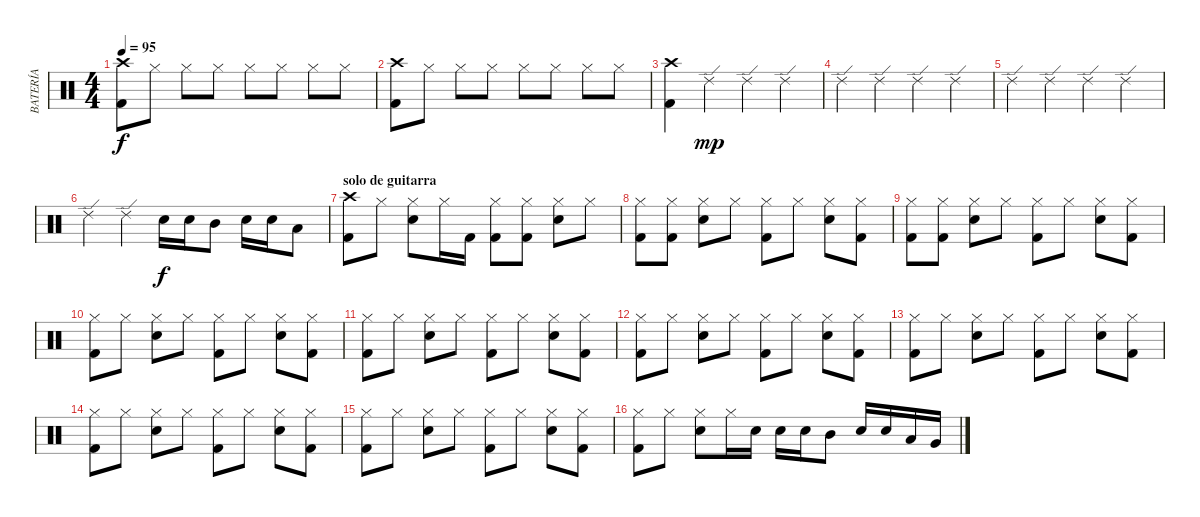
\track ("BATERÍA" "BATERÍA") {instrument percussion}
\staff {score}
\articulation defaults
\ts (4 4)
\tempo 95
\clef neutral
\ks c
("Crash high (hit)" "Kick (hit) 2").8{dy f} "Hi-Hat (closed)".8 "Hi-Hat (closed)".8 "Hi-Hat (closed)".8 "Hi-Hat (closed)".8 "Hi-Hat (closed)".8 "Hi-Hat (closed)".8 "Hi-Hat (closed)".8 |
("Crash high (hit)" "Kick (hit) 2").8 "Hi-Hat (closed)".8 "Hi-Hat (closed)".8 "Hi-Hat (closed)".8 "Hi-Hat (closed)".8 "Hi-Hat (closed)".8 "Hi-Hat (closed)".8 "Hi-Hat (closed)".8 |
("Crash high (hit)" "Kick (hit) 2").4 "Ride (edge) 2".4{dy mp} "Ride (edge) 2".4 "Ride (edge) 2".4 |
"Ride (edge) 2".4 "Ride (edge) 2".4 "Ride (edge) 2".4 "Ride (edge) 2".4 |
"Ride (edge) 2".4 "Ride (edge) 2".4 "Ride (edge) 2".4 "Ride (edge) 2".4 |
"Ride (edge) 2".4 "Ride (edge) 2".4 "Electric Snare (hit)".16{dy f} "Electric Snare (hit)".16 "Mid Tom (hit)".8 "Electric Snare (hit)".16 "Electric Snare (hit)".16 "Low Tom (hit)".8 |
\section ("" "solo de guitarra")
("Crash high (hit)" "Kick (hit) 2").8 "Hi-Hat (closed)".8 ("Hi-Hat (closed)" "Electric Snare (hit)").8 "Hi-Hat (closed)".16 "Kick (hit) 2".16 ("Hi-Hat (closed)" "Kick (hit) 2").8 ("Hi-Hat (closed)" "Kick (hit) 2").8 ("Hi-Hat (closed)" "Electric Snare (hit)").8 "Hi-Hat (closed)".8 |
("Hi-Hat (closed)" "Kick (hit) 2").8 ("Hi-Hat (closed)" "Kick (hit) 2").8 ("Hi-Hat (closed)" "Electric Snare (hit)").8 "Hi-Hat (closed)".8 ("Hi-Hat (closed)" "Kick (hit) 2").8 "Hi-Hat (closed)".8 ("Hi-Hat (closed)" "Electric Snare (hit)").8 ("Hi-Hat (closed)" "Kick (hit) 2").8 |
("Hi-Hat (closed)" "Kick (hit) 2").8 ("Hi-Hat (closed)" "Kick (hit) 2").8 ("Hi-Hat (closed)" "Electric Snare (hit)").8 "Hi-Hat (closed)".8 ("Hi-Hat (closed)" "Kick (hit) 2").8 "Hi-Hat (closed)".8 ("Hi-Hat (closed)" "Electric Snare (hit)").8 ("Hi-Hat (closed)" "Kick (hit) 2").8 |
("Hi-Hat (closed)" "Kick (hit) 2").8 "Hi-Hat (closed)".8 ("Hi-Hat (closed)" "Electric Snare (hit)").8 "Hi-Hat (closed)".8 ("Hi-Hat (closed)" "Kick (hit) 2").8 "Hi-Hat (closed)".8 ("Hi-Hat (closed)" "Electric Snare (hit)").8 ("Hi-Hat (closed)" "Kick (hit) 2").8 |
("Hi-Hat (closed)" "Kick (hit) 2").8 "Hi-Hat (closed)".8 ("Hi-Hat (closed)" "Electric Snare (hit)").8 "Hi-Hat (closed)".8 ("Hi-Hat (closed)" "Kick (hit) 2").8 "Hi-Hat (closed)".8 ("Hi-Hat (closed)" "Electric Snare (hit)").8 ("Hi-Hat (closed)" "Kick (hit) 2").8 |
("Hi-Hat (closed)" "Kick (hit) 2").8 "Hi-Hat (closed)".8 ("Hi-Hat (closed)" "Electric Snare (hit)").8 "Hi-Hat (closed)".8 ("Hi-Hat (closed)" "Kick (hit) 2").8 "Hi-Hat (closed)".8 ("Hi-Hat (closed)" "Electric Snare (hit)").8 ("Hi-Hat (closed)" "Kick (hit) 2").8 |
("Hi-Hat (closed)" "Kick (hit) 2").8 "Hi-Hat (closed)".8 ("Hi-Hat (closed)" "Electric Snare (hit)").8 "Hi-Hat (closed)".8 ("Hi-Hat (closed)" "Kick (hit) 2").8 "Hi-Hat (closed)".8 ("Hi-Hat (closed)" "Electric Snare (hit)").8 ("Hi-Hat (closed)" "Kick (hit) 2").8 |
("Hi-Hat (closed)" "Kick (hit) 2").8 "Hi-Hat (closed)".8 ("Hi-Hat (closed)" "Electric Snare (hit)").8 "Hi-Hat (closed)".8 ("Hi-Hat (closed)" "Kick (hit) 2").8 "Hi-Hat (closed)".8 ("Hi-Hat (closed)" "Electric Snare (hit)").8 ("Hi-Hat (closed)" "Kick (hit) 2").8 |
("Hi-Hat (closed)" "Kick (hit) 2").8 "Hi-Hat (closed)".8 ("Hi-Hat (closed)" "Electric Snare (hit)").8 "Hi-Hat (closed)".8 ("Hi-Hat (closed)" "Kick (hit) 2").8 "Hi-Hat (closed)".8 ("Hi-Hat (closed)" "Electric Snare (hit)").8 ("Hi-Hat (closed)" "Kick (hit) 2").8 |
("Hi-Hat (closed)" "Kick (hit) 2").8 "Hi-Hat (closed)".8 ("Hi-Hat (closed)" "Electric Snare (hit)").8 "Hi-Hat (closed)".16 "Electric Snare (hit)".16 "Electric Snare (hit)".16 "Electric Snare (hit)".16 "Mid Tom (hit)".8 "Electric Snare (hit)".16 "Electric Snare (hit)".16 "Low Tom (hit)".16 "Very Low Tom (hit)".16
